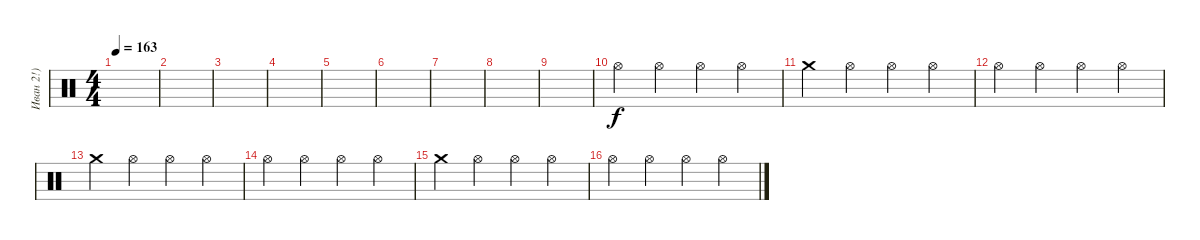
\track ("Иван 2!)" "Иван 2!)") {instrument percussion}
\staff {score}
\articulation defaults
\ts (4 4)
\tempo 163
\clef neutral
\ks c
|
|
|
|
|
|
|
|
|
"Hi-Hat (open)".4 "Hi-Hat (open)".4 "Hi-Hat (open)".4 "Hi-Hat (open)".4 |
"Crash medium (hit)".4 "Hi-Hat (open)".4 "Hi-Hat (open)".4 "Hi-Hat (open)".4 |
"Hi-Hat (open)".4 "Hi-Hat (open)".4 "Hi-Hat (open)".4 "Hi-Hat (open)".4 |
"Crash medium (hit)".4 "Hi-Hat (open)".4 "Hi-Hat (open)".4 "Hi-Hat (open)".4 |
"Hi-Hat (open)".4 "Hi-Hat (open)".4 "Hi-Hat (open)".4 "Hi-Hat (open)".4 |
"Crash medium (hit)".4 "Hi-Hat (open)".4 "Hi-Hat (open)".4 "Hi-Hat (open)".4 |
"Hi-Hat (open)".4 "Hi-Hat (open)".4 "Hi-Hat (open)".4 "Hi-Hat (open)".4
